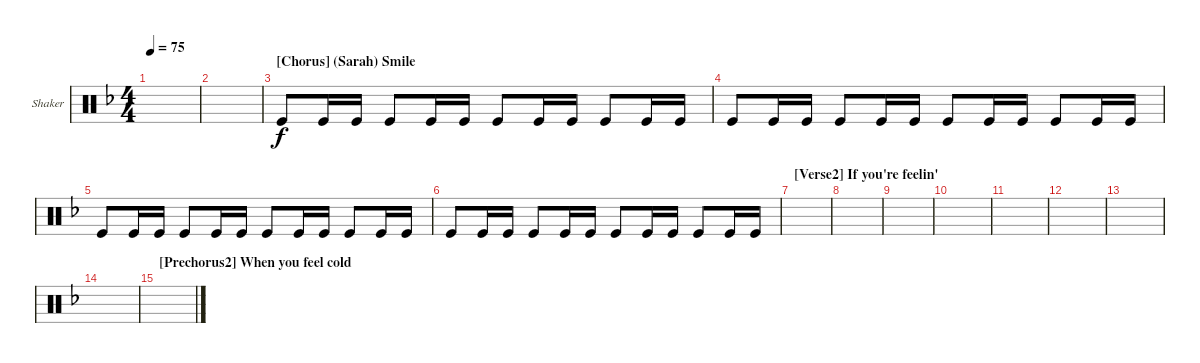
\defaultSystemsLayout 4
\bracketExtendMode groupsimilarinstruments
\firstSystemTrackNameOrientation horizontal
\otherSystemsTrackNameOrientation horizontal
\track ("Shaker" "Shaker") {instrument percussion}
\staff {score}
\articulation defaults
\ts (4 4)
\tempo 75
\clef neutral
\scale
0.333333
\ks dminor
|
\scale
0.333333 |
\section ("" "[Chorus] (Sarah) Smile")
\scale
0.333333 "Kick (hit)".8 "Kick (hit)".16 "Kick (hit)".16 "Kick (hit)".8 "Kick (hit)".16 "Kick (hit)".16 "Kick (hit)".8 "Kick (hit)".16 "Kick (hit)".16 "Kick (hit)".8 "Kick (hit)".16 "Kick (hit)".16 |
\scale
0.333333 "Kick (hit)".8 "Kick (hit)".16 "Kick (hit)".16 "Kick (hit)".8 "Kick (hit)".16 "Kick (hit)".16 "Kick (hit)".8 "Kick (hit)".16 "Kick (hit)".16 "Kick (hit)".8 "Kick (hit)".16 "Kick (hit)".16 |
\scale
0.333333 "Kick (hit)".8 "Kick (hit)".16 "Kick (hit)".16 "Kick (hit)".8 "Kick (hit)".16 "Kick (hit)".16 "Kick (hit)".8 "Kick (hit)".16 "Kick (hit)".16 "Kick (hit)".8 "Kick (hit)".16 "Kick (hit)".16 |
\scale
0.333333 "Kick (hit)".8 "Kick (hit)".16 "Kick (hit)".16 "Kick (hit)".8 "Kick (hit)".16 "Kick (hit)".16 "Kick (hit)".8 "Kick (hit)".16 "Kick (hit)".16 "Kick (hit)".8 "Kick (hit)".16 "Kick (hit)".16 |
\section ("" "[Verse2] If you're feelin'")
\scale
0.333333 |
\scale
0.333333 |
\scale
0.333333 |
\scale
0.333333 |
\scale
0.333333 |
\scale
0.333333 |
\scale
0.333333 |
\scale
0.333333 |
\section ("" "[Prechorus2] When you feel cold")
\scale
0.333333 |
\scale
0.333333
